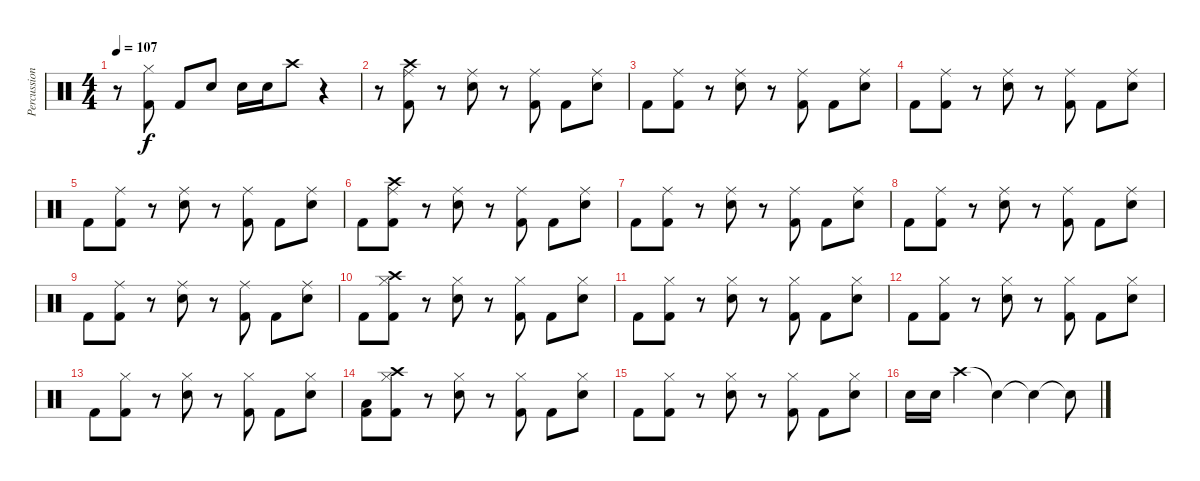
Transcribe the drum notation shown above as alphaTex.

\track ("Percussion" "Percussion") {instrument percussion}
\staff {score}
\articulation defaults
\ts (4 4)
\tempo 107
\clef neutral
\ks c
r.8{dy f} ("Hi-Hat (closed)" "Kick (hit) 2").8 "Kick (hit) 2".8 "Electric Snare (hit)".8 "Electric Snare (hit)".16 "Electric Snare (hit)".16 "Crash high (hit)".8 r.4 |
r.8 ("Crash high (hit)" "Ride (middle)" "Kick (hit) 2").8 r.8 ("Ride (middle)" "Electric Snare (hit)").8 r.8 ("Ride (middle)" "Kick (hit) 2").8 "Kick (hit) 2".8 ("Ride (middle)" "Electric Snare (hit)").8 |
"Kick (hit) 2".8 ("Ride (middle)" "Kick (hit) 2").8 r.8 ("Ride (middle)" "Electric Snare (hit)").8 r.8 ("Ride (middle)" "Kick (hit) 2").8 "Kick (hit) 2".8 ("Ride (middle)" "Electric Snare (hit)").8 |
"Kick (hit) 2".8 ("Ride (middle)" "Kick (hit) 2").8 r.8 ("Ride (middle)" "Electric Snare (hit)").8 r.8 ("Ride (middle)" "Kick (hit) 2").8 "Kick (hit) 2".8 ("Ride (middle)" "Electric Snare (hit)").8 |
"Kick (hit) 2".8 ("Ride (middle)" "Kick (hit) 2").8 r.8 ("Ride (middle)" "Electric Snare (hit)").8 r.8 ("Ride (middle)" "Kick (hit) 2").8 "Kick (hit) 2".8 ("Ride (middle)" "Electric Snare (hit)").8 |
"Kick (hit) 2".8 ("Crash high (hit)" "Ride (middle)" "Kick (hit) 2").8 r.8 ("Ride (middle)" "Electric Snare (hit)").8 r.8 ("Ride (middle)" "Kick (hit) 2").8 "Kick (hit) 2".8 ("Ride (middle)" "Electric Snare (hit)").8 |
"Kick (hit) 2".8 ("Ride (middle)" "Kick (hit) 2").8 r.8 ("Ride (middle)" "Electric Snare (hit)").8 r.8 ("Ride (middle)" "Kick (hit) 2").8 "Kick (hit) 2".8 ("Ride (middle)" "Electric Snare (hit)").8 |
"Kick (hit) 2".8 ("Ride (middle)" "Kick (hit) 2").8 r.8 ("Ride (middle)" "Electric Snare (hit)").8 r.8 ("Ride (middle)" "Kick (hit) 2").8 "Kick (hit) 2".8 ("Ride (middle)" "Electric Snare (hit)").8 |
"Kick (hit) 2".8 ("Ride (middle)" "Kick (hit) 2").8 r.8 ("Ride (middle)" "Electric Snare (hit)").8 r.8 ("Ride (middle)" "Kick (hit) 2").8 "Kick (hit) 2".8 ("Ride (middle)" "Electric Snare (hit)").8 |
"Kick (hit) 2".8 ("Crash high (hit)" "Hi-Hat (closed)" "Kick (hit) 2").8 r.8 ("Hi-Hat (closed)" "Electric Snare (hit)").8 r.8 ("Hi-Hat (closed)" "Kick (hit) 2").8 "Kick (hit) 2".8 ("Hi-Hat (closed)" "Electric Snare (hit)").8 |
"Kick (hit) 2".8 ("Hi-Hat (closed)" "Kick (hit) 2").8 r.8 ("Hi-Hat (closed)" "Electric Snare (hit)").8 r.8 ("Hi-Hat (closed)" "Kick (hit) 2").8 "Kick (hit) 2".8 ("Hi-Hat (closed)" "Electric Snare (hit)").8 |
"Kick (hit) 2".8 ("Hi-Hat (closed)" "Kick (hit) 2").8 r.8 ("Hi-Hat (closed)" "Electric Snare (hit)").8 r.8 ("Hi-Hat (closed)" "Kick (hit) 2").8 "Kick (hit) 2".8 ("Hi-Hat (closed)" "Electric Snare (hit)").8 |
"Kick (hit) 2".8 ("Hi-Hat (closed)" "Kick (hit) 2").8 r.8 ("Hi-Hat (closed)" "Electric Snare (hit)").8 r.8 ("Hi-Hat (closed)" "Kick (hit) 2").8 "Kick (hit) 2".8 ("Hi-Hat (closed)" "Electric Snare (hit)").8 |
("Low Tom (hit)" "Kick (hit) 2").8 ("Crash high (hit)" "Hi-Hat (closed)" "Kick (hit) 2").8 r.8 ("Hi-Hat (closed)" "Electric Snare (hit)").8 r.8 ("Hi-Hat (closed)" "Kick (hit) 2").8 "Kick (hit) 2".8 ("Hi-Hat (closed)" "Electric Snare (hit)").8 |
"Kick (hit) 2".8 ("Hi-Hat (closed)" "Kick (hit) 2").8 r.8 ("Hi-Hat (closed)" "Electric Snare (hit)").8 r.8 ("Hi-Hat (closed)" "Kick (hit) 2").8 "Kick (hit) 2".8 ("Hi-Hat (closed)" "Electric Snare (hit)").8 |
"Electric Snare (hit)".16 "Electric Snare (hit)".16 "Crash high (hit)".4 "Snare (hit)"{t}.4 "Snare (hit)"{t}.4 "Snare (hit)"{t}.8
